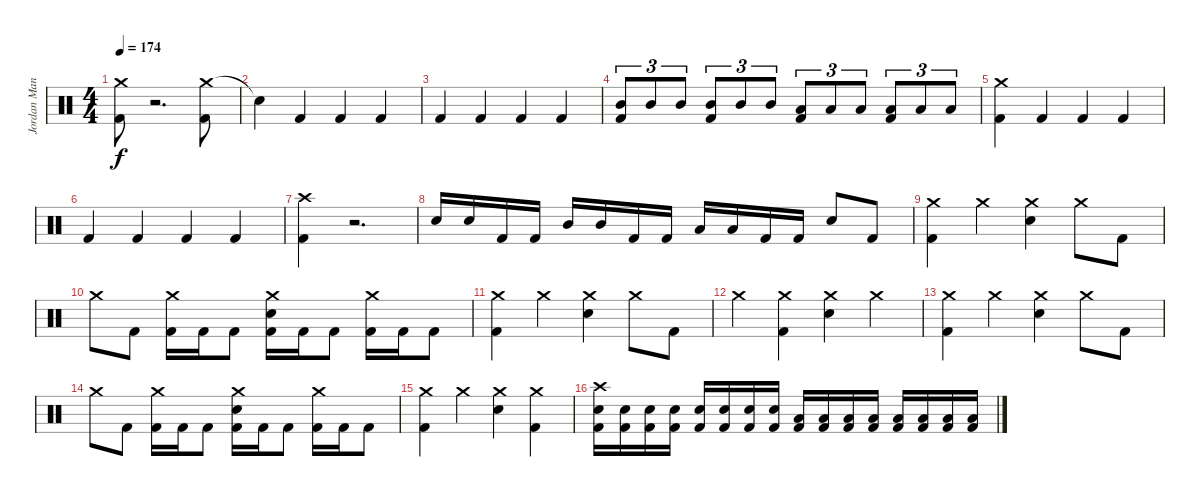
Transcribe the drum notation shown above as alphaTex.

\track ("Jordan Manchino (Drums)" "Jordan Man") {instrument percussion}
\staff {score}
\articulation defaults
\ts (4 4)
\tempo 174
\clef neutral
\ks c
("Crash medium (hit)" "Kick (hit) 2").8{dy f} r.2{d} ("Crash medium (hit)" "Kick (hit) 2").8 |
"Snare (hit)"{t}.4 "Kick (hit) 2".4 "Kick (hit) 2".4 "Kick (hit) 2".4 |
"Kick (hit) 2".4 "Kick (hit) 2".4 "Kick (hit) 2".4 "Kick (hit) 2".4 |
("Mid Tom (hit)" "Kick (hit) 2").8{tu (3 2)} "Mid Tom (hit)".8{tu (3 2)} "Mid Tom (hit)".8{tu (3 2)} ("Mid Tom (hit)" "Kick (hit) 2").8{tu (3 2)} "Mid Tom (hit)".8{tu (3 2)} "Mid Tom (hit)".8{tu (3 2)} ("Low Tom (hit)" "Kick (hit) 2").8{tu (3 2)} "Low Tom (hit)".8{tu (3 2)} "Low Tom (hit)".8{tu (3 2)} ("Low Floor Tom (hit)" "Kick (hit) 2").8{tu (3 2)} "Low Floor Tom (hit)".8{tu (3 2)} "Low Floor Tom (hit)".8{tu (3 2)} |
("Crash medium (hit)" "Kick (hit) 2").4 "Kick (hit) 2".4 "Kick (hit) 2".4 "Kick (hit) 2".4 |
"Kick (hit) 2".4 "Kick (hit) 2".4 "Kick (hit) 2".4 "Kick (hit) 2".4 |
("Crash high (hit)" "Kick (hit) 2").4 r.2{d} |
"Snare (hit) 2".16 "Snare (hit) 2".16 "Kick (hit) 2".16 "Kick (hit) 2".16 "Mid Tom (hit)".16 "Mid Tom (hit)".16 "Kick (hit) 2".16 "Kick (hit) 2".16 "Low Tom (hit)".16 "Low Floor Tom (hit)".16 "Kick (hit) 2".16 "Kick (hit) 2".16 "Snare (hit) 2".8 "Kick (hit) 2".8 |
("Crash medium (hit)" "Kick (hit) 2").4 "Crash medium (hit)".4 ("Crash medium (hit)" "Snare (hit) 2").4 "Crash medium (hit)".8 "Kick (hit) 2".8 |
"Crash medium (hit)".8 "Kick (hit) 2".8 ("Crash medium (hit)" "Kick (hit) 2").16 "Kick (hit) 2".16 "Kick (hit) 2".8 ("Kick (hit) 2" "Crash medium (hit)" "Snare (hit) 2").16 "Kick (hit) 2".16 "Kick (hit) 2".8 ("Crash medium (hit)" "Kick (hit) 2").16 "Kick (hit) 2".16 "Kick (hit) 2".8 |
("Crash medium (hit)" "Kick (hit) 2").4 "Crash medium (hit)".4 ("Crash medium (hit)" "Snare (hit) 2").4 "Crash medium (hit)".8 "Kick (hit) 2".8 |
"Crash medium (hit)".4 ("Crash medium (hit)" "Kick (hit) 2").4 ("Crash medium (hit)" "Snare (hit) 2").4 "Crash medium (hit)".4 |
("Crash medium (hit)" "Kick (hit) 2").4 "Crash medium (hit)".4 ("Crash medium (hit)" "Snare (hit) 2").4 "Crash medium (hit)".8 "Kick (hit) 2".8 |
"Crash medium (hit)".8 "Kick (hit) 2".8 ("Crash medium (hit)" "Kick (hit) 2").16 "Kick (hit) 2".16 "Kick (hit) 2".8 ("Kick (hit) 2" "Crash medium (hit)" "Snare (hit) 2").16 "Kick (hit) 2".16 "Kick (hit) 2".8 ("Crash medium (hit)" "Kick (hit) 2").16 "Kick (hit) 2".16 "Kick (hit) 2".8 |
("Crash medium (hit)" "Kick (hit) 2").4 "Crash medium (hit)".4 ("Crash medium (hit)" "Snare (hit) 2").4 ("Crash medium (hit)" "Kick (hit) 2").4 |
("Crash high (hit)" "Snare (hit) 2" "Kick (hit) 2").16 ("Snare (hit) 2" "Kick (hit) 2").16 ("Snare (hit) 2" "Kick (hit) 2").16 ("Snare (hit) 2" "Kick (hit) 2").16 ("Snare (hit) 2" "Kick (hit) 2").16 ("Snare (hit) 2" "Kick (hit) 2").16 ("Snare (hit) 2" "Kick (hit) 2").16 ("Snare (hit) 2" "Kick (hit) 2").16 ("Low Tom (hit)" "Kick (hit) 2").16 ("Low Tom (hit)" "Kick (hit) 2").16 ("Low Tom (hit)" "Kick (hit) 2").16 ("Low Tom (hit)" "Kick (hit) 2").16 ("Low Floor Tom (hit)" "Kick (hit) 2").16 ("Low Floor Tom (hit)" "Kick (hit) 2").16 ("Low Floor Tom (hit)" "Kick (hit) 2").16 ("Low Floor Tom (hit)" "Kick (hit) 2").16
